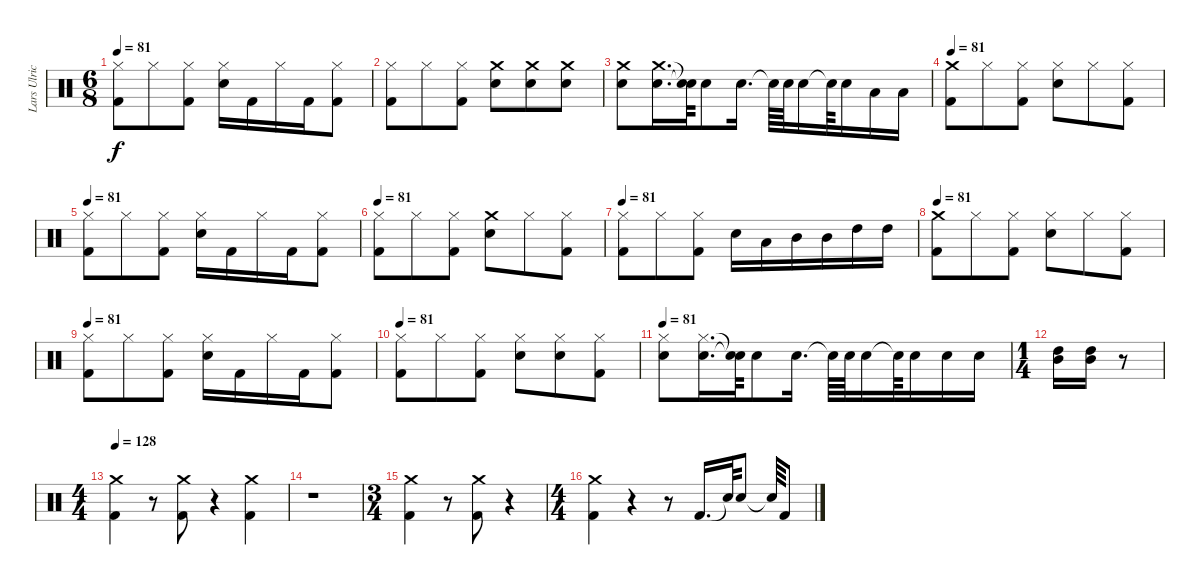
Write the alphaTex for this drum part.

\track ("Lars Ulrich (Drums)" "Lars Ulric") {instrument percussion}
\staff {score}
\articulation defaults
\ts (6 8)
\tempo 81
\clef neutral
\ks c
("Hi-Hat (closed)" "Kick (hit) 2").8{dy f} "Hi-Hat (closed)".8 ("Kick (hit) 2" "Hi-Hat (closed)").8 ("Snare (hit) 2" "Hi-Hat (closed)").16 "Kick (hit) 2".16 "Hi-Hat (closed)".16 "Kick (hit) 2".16 ("Kick (hit) 2" "Hi-Hat (closed)").8 |
("Hi-Hat (closed)" "Kick (hit) 2").8 "Hi-Hat (closed)".8 ("Kick (hit) 2" "Hi-Hat (closed)").8 ("Crash medium (hit)" "Snare (hit) 2").8 ("Crash medium (hit)" "Snare (hit) 2").8 ("Crash medium (hit)" "Snare (hit) 2").8 |
("Snare (hit) 2" "Crash medium (hit)").8 ("Snare (hit) 2" "Crash medium (hit)").16{d} ("Snare (hit)"{t} "Snare (hit)"{t}).64 "Snare (hit) 2".8 "Snare (hit) 2".16{d} "Snare (hit)"{t}.64 "Snare (hit) 2".64 "Snare (hit) 2".16 "Snare (hit)"{t}.64 "Snare (hit) 2".16 "Low Tom (hit)".16 "Low Tom (hit)".16 |
\tempo 81
("Kick (hit) 2" "Crash medium (hit)").8 "Hi-Hat (closed)".8 ("Kick (hit) 2" "Hi-Hat (closed)").8 ("Snare (hit) 2" "Hi-Hat (closed)").8 "Hi-Hat (closed)".8 ("Kick (hit) 2" "Hi-Hat (closed)").8 |
\tempo 81
("Hi-Hat (closed)" "Kick (hit) 2").8 "Hi-Hat (closed)".8 ("Kick (hit) 2" "Hi-Hat (closed)").8 ("Snare (hit) 2" "Hi-Hat (closed)").16 "Kick (hit) 2".16 "Hi-Hat (closed)".16 "Kick (hit) 2".16 ("Kick (hit) 2" "Hi-Hat (closed)").8 |
\tempo 81
("Hi-Hat (closed)" "Kick (hit) 2").8 "Hi-Hat (closed)".8 ("Hi-Hat (closed)" "Kick (hit) 2").8 ("Crash medium (hit)" "Snare (hit) 2").8 "Hi-Hat (closed)".8 ("Hi-Hat (closed)" "Kick (hit) 2").8 |
\tempo 81
("Hi-Hat (closed)" "Kick (hit) 2").8 "Hi-Hat (closed)".8 ("Kick (hit) 2" "Hi-Hat (closed)").8 "Snare (hit) 2".16 "Low Tom (hit)".16 "Mid Tom (hit)".16 "Mid Tom (hit)".16 "High Tom (hit)".16 "High Tom (hit)".16 |
\tempo 81
("Kick (hit) 2" "Crash medium (hit)").8 "Hi-Hat (closed)".8 ("Kick (hit) 2" "Hi-Hat (closed)").8 ("Snare (hit) 2" "Hi-Hat (closed)").8 "Hi-Hat (closed)".8 ("Kick (hit) 2" "Hi-Hat (closed)").8 |
\tempo 81
("Hi-Hat (closed)" "Kick (hit) 2").8 "Hi-Hat (closed)".8 ("Kick (hit) 2" "Hi-Hat (closed)").8 ("Snare (hit) 2" "Hi-Hat (closed)").16 "Kick (hit) 2".16 "Hi-Hat (closed)".16 "Kick (hit) 2".16 ("Kick (hit) 2" "Hi-Hat (closed)").8 |
\tempo 81
("Kick (hit) 2" "Hi-Hat (closed)").8 "Hi-Hat (closed)".8 ("Kick (hit) 2" "Hi-Hat (closed)").8 ("Snare (hit) 2" "Hi-Hat (closed)").8 ("Hi-Hat (closed)" "Snare (hit) 2").8 ("Kick (hit) 2" "Hi-Hat (closed)").8 |
\tempo 81
("Hi-Hat (closed)" "Snare (hit) 2").8 ("Hi-Hat (closed)" "Snare (hit) 2").16{d} ("Snare (hit)"{t} "Snare (hit)"{t}).64 "Snare (hit) 2".8 "Snare (hit) 2".16{d} "Snare (hit)"{t}.64 "Snare (hit) 2".64 "Snare (hit) 2".16 "Snare (hit)"{t}.64 "Snare (hit) 2".16 "Snare (hit) 2".16 "Snare (hit) 2".16 |
\ts (1 4)
("High Tom (hit)" "Mid Tom (hit)").16 ("High Tom (hit)" "Mid Tom (hit)").16 r.8 |
\ts (4 4)
\tempo 128
("Kick (hit) 2" "Crash medium (hit)").4 r.8 ("Kick (hit) 2" "Crash medium (hit)").8 r.4 ("Kick (hit) 2" "Crash medium (hit)").4 |
r.1 |
\ts (3 4)
("Kick (hit) 2" "Crash medium (hit)").4 r.8 ("Kick (hit) 2" "Crash medium (hit)").8 r.4 |
\ts (4 4)
("Kick (hit) 2" "Crash medium (hit)").4 r.4 r.8 "Kick (hit) 2".16{d} "Snare (hit)"{t}.64 "Snare (hit) 2".8 "Snare (hit)"{t}.64 "Kick (hit) 2".8
